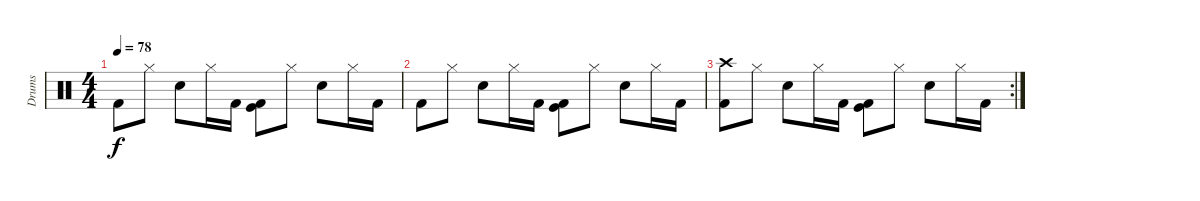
\track ("Drums" "Drums") {instrument percussion}
\staff {score}
\articulation defaults
\ts (4 4)
\tempo 78
\clef neutral
\ks c "Kick (hit) 2".8{dy f} "Hi-Hat (closed)".8 "Snare (hit) 2".8 "Hi-Hat (closed)".16 "Kick (hit) 2".16
("Kick (hit) 2" "Kick (hit)").8 "Hi-Hat (closed)".8 "Snare (hit) 2".8 "Hi-Hat (closed)".16 "Kick (hit) 2".16 |
"Kick (hit) 2".8 "Hi-Hat (closed)".8 "Snare (hit) 2".8 "Hi-Hat (closed)".16 "Kick (hit) 2".16 ("Kick (hit) 2" "Kick (hit)").8 "Hi-Hat (closed)".8 "Snare (hit) 2".8 "Hi-Hat (closed)".16 "Kick (hit) 2".16 |
\rc 2
("Kick (hit) 2" "Crash high (hit)").8 "Hi-Hat (closed)".8 "Snare (hit) 2".8 "Hi-Hat (closed)".16 "Kick (hit) 2".16 ("Kick (hit) 2" "Kick (hit)").8 "Hi-Hat (closed)".8 "Snare (hit) 2".8 "Hi-Hat (closed)".16 "Kick (hit) 2".16
